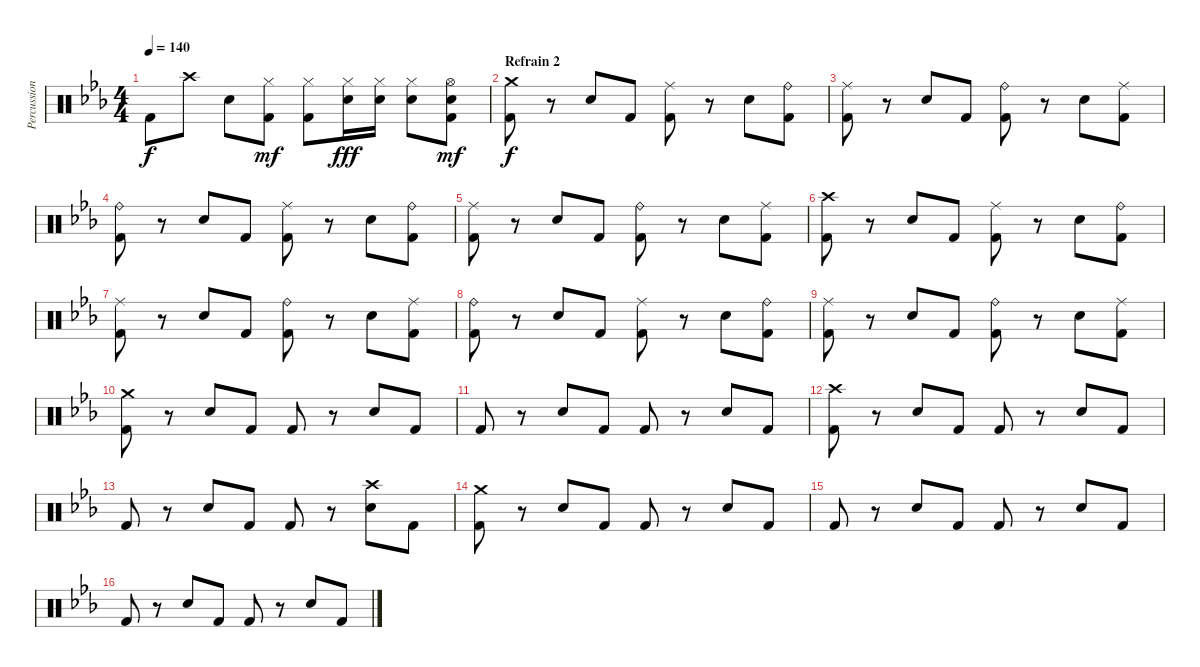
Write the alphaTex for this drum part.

\track ("Percussions" "Percussion") {instrument percussion}
\staff {score}
\articulation defaults
\ts (4 4)
\tempo 140
\clef neutral
\ks eb "Kick (hit) 2".8{dy f} "Crash high (hit)".8 "Snare (hit) 2".8
("Hi-Hat (closed)" "Kick (hit) 2").8{dy mf} ("Hi-Hat (closed)" "Kick (hit) 2").8 ("Hi-Hat (closed)" "Snare (hit) 2").16{dy fff} ("Hi-Hat (closed)" "Snare (hit) 2").16 ("Hi-Hat (closed)" "Snare (hit) 2").8 ("Hi-Hat (open)" "Snare (hit) 2" "Kick (hit) 2").8{dy mf} |
\section ("" "Refrain 2")
("Crash medium (hit)" "Kick (hit) 2").8{dy f} r.8 "Snare (hit) 2".8 "Kick (hit) 2".8 ("Ride (middle)" "Kick (hit) 2").8 r.8 "Snare (hit) 2".8 ("Ride (bell)" "Kick (hit) 2").8 |
("Ride (middle)" "Kick (hit) 2").8 r.8 "Snare (hit) 2".8 "Kick (hit) 2".8 ("Ride (bell)" "Kick (hit) 2").8 r.8 "Snare (hit) 2".8 ("Ride (middle)" "Kick (hit) 2").8 |
("Ride (bell)" "Kick (hit) 2").8 r.8 "Snare (hit) 2".8 "Kick (hit) 2".8 ("Ride (middle)" "Kick (hit) 2").8 r.8 "Snare (hit) 2".8 ("Ride (bell)" "Kick (hit) 2").8 |
("Ride (middle)" "Kick (hit) 2").8 r.8 "Snare (hit) 2".8 "Kick (hit) 2".8 ("Ride (bell)" "Kick (hit) 2").8 r.8 "Snare (hit) 2".8 ("Ride (middle)" "Kick (hit) 2").8 |
("Crash high (hit)" "Kick (hit) 2").8 r.8 "Snare (hit) 2".8 "Kick (hit) 2".8 ("Ride (middle)" "Kick (hit) 2").8 r.8 "Snare (hit) 2".8 ("Ride (bell)" "Kick (hit) 2").8 |
("Ride (middle)" "Kick (hit) 2").8 r.8 "Snare (hit) 2".8 "Kick (hit) 2".8 ("Ride (bell)" "Kick (hit) 2").8 r.8 "Snare (hit) 2".8 ("Ride (middle)" "Kick (hit) 2").8 |
("Ride (bell)" "Kick (hit) 2").8 r.8 "Snare (hit) 2".8 "Kick (hit) 2".8 ("Ride (middle)" "Kick (hit) 2").8 r.8 "Snare (hit) 2".8 ("Ride (bell)" "Kick (hit) 2").8 |
("Ride (middle)" "Kick (hit) 2").8 r.8 "Snare (hit) 2".8 "Kick (hit) 2".8 ("Ride (bell)" "Kick (hit) 2").8 r.8 "Snare (hit) 2".8 ("Ride (middle)" "Kick (hit) 2").8 |
("Crash medium (hit)" "Kick (hit) 2").8 r.8 "Snare (hit) 2".8 "Kick (hit) 2".8 "Kick (hit) 2".8 r.8 "Snare (hit) 2".8 "Kick (hit) 2".8 |
"Kick (hit) 2".8 r.8 "Snare (hit) 2".8 "Kick (hit) 2".8 "Kick (hit) 2".8 r.8 "Snare (hit) 2".8 "Kick (hit) 2".8 |
("Crash high (hit)" "Kick (hit) 2").8 r.8 "Snare (hit) 2".8 "Kick (hit) 2".8 "Kick (hit) 2".8 r.8 "Snare (hit) 2".8 "Kick (hit) 2".8 |
"Kick (hit) 2".8 r.8 "Snare (hit) 2".8 "Kick (hit) 2".8 "Kick (hit) 2".8 r.8 ("Crash high (hit)" "Snare (hit) 2").8 "Kick (hit) 2".8 |
("Crash medium (hit)" "Kick (hit) 2").8 r.8 "Snare (hit) 2".8 "Kick (hit) 2".8 "Kick (hit) 2".8 r.8 "Snare (hit) 2".8 "Kick (hit) 2".8 |
"Kick (hit) 2".8 r.8 "Snare (hit) 2".8 "Kick (hit) 2".8 "Kick (hit) 2".8 r.8 "Snare (hit) 2".8 "Kick (hit) 2".8 |
"Kick (hit) 2".8 r.8 "Snare (hit) 2".8 "Kick (hit) 2".8 "Kick (hit) 2".8 r.8 "Snare (hit) 2".8 "Kick (hit) 2".8
